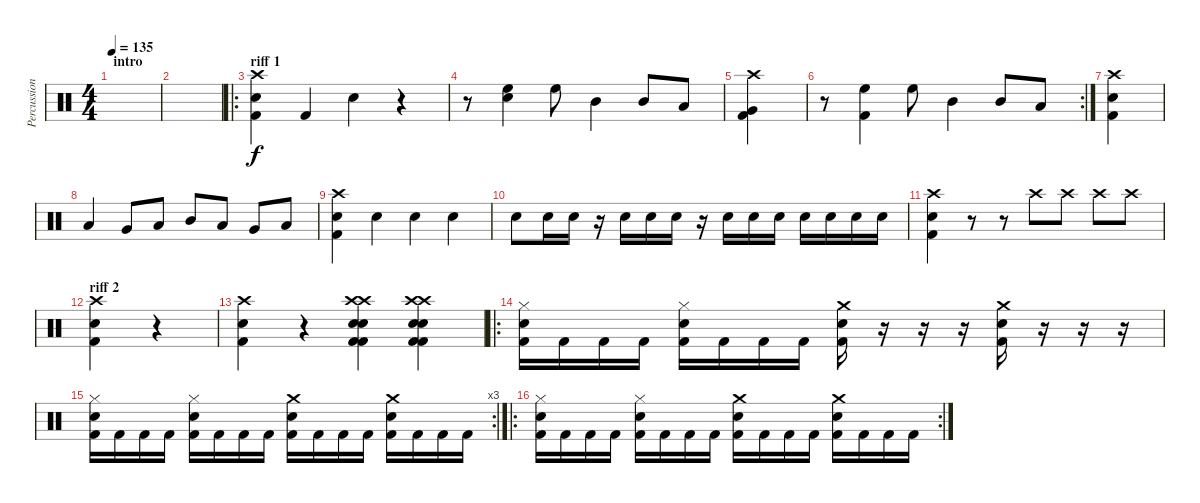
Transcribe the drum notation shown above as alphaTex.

\track ("Percussions" "Percussion") {instrument percussion}
\staff {score}
\articulation defaults
\ts (4 4)
\section ("" "intro")
\tempo 135
\clef neutral
\ks c
|
|
\ro
\section ("" "riff 1")
("Crash high (hit)" "Snare (hit) 2" "Kick (hit) 2").4 "Kick (hit) 2".4 "Snare (hit) 2".4 r.4 |
r.8 ("High Floor Tom (hit)" "Snare (hit) 2").4 "High Floor Tom (hit)".8 "Mid Tom (hit)".4 "Mid Tom (hit)".8 "Low Tom (hit)".8 |
("Crash high (hit)" "Very Low Tom (hit)" "Kick (hit) 2").4 |
\rc 2
r.8 ("High Floor Tom (hit)" "Kick (hit) 2").4 "High Floor Tom (hit)".8 "Mid Tom (hit)".4 "Mid Tom (hit)".8 "Low Tom (hit)".8 |
("Crash high (hit)" "Snare (hit) 2" "Kick (hit) 2").4 |
"Low Floor Tom (hit)".4 "Very Low Tom (hit)".8 "Low Tom (hit)".8 "Mid Tom (hit)".8 "Low Tom (hit)".8 "Very Low Tom (hit)".8 "Low Floor Tom (hit)".8 |
("Crash high (hit)" "Snare (hit) 2" "Kick (hit) 2").4 "Snare (hit) 2".4 "Snare (hit) 2".4 "Snare (hit) 2".4 |
"Snare (hit) 2".8 "Snare (hit) 2".16 "Snare (hit) 2".16 r.16 "Snare (hit) 2".16 "Snare (hit) 2".16 "Snare (hit) 2".16 r.16 "Snare (hit) 2".16 "Snare (hit) 2".16 "Snare (hit) 2".16 "Snare (hit) 2".16 "Snare (hit) 2".16 "Snare (hit) 2".16 "Snare (hit) 2".16 |
("Crash high (hit)" "Snare (hit) 2" "Kick (hit) 2").4 r.8 r.8 "Crash high (hit)".8 "Crash high (hit)".8 "Crash high (hit)".8 "Crash high (hit)".8 |
\section ("" "riff 2")
("Crash high (hit)" "Snare (hit) 2" "Kick (hit) 2").4 r.4 |
("Crash high (hit)" "Snare (hit) 2" "Kick (hit) 2").4 r.4 ("Crash high (hit)" "Crash high (hit)" "Snare (hit) 2" "Snare (hit) 2" "Kick (hit) 2" "Kick (hit) 2").4 ("Crash high (hit)" "Crash high (hit)" "Snare (hit) 2" "Snare (hit) 2" "Kick (hit) 2" "Kick (hit) 2").4 |
\ro
("Hi-Hat (closed)" "Snare (hit) 2" "Kick (hit) 2").16 "Kick (hit) 2".16 "Kick (hit) 2".16 "Kick (hit) 2".16 ("Hi-Hat (closed)" "Snare (hit) 2" "Kick (hit) 2").16 "Kick (hit) 2".16 "Kick (hit) 2".16 "Kick (hit) 2".16 ("Crash medium (hit)" "Snare (hit) 2" "Kick (hit) 2").16 r.16 r.16 r.16 ("Crash medium (hit)" "Snare (hit) 2" "Kick (hit) 2").16 r.16 r.16 r.16 |
\rc 3
("Hi-Hat (closed)" "Snare (hit) 2" "Kick (hit) 2").16 "Kick (hit) 2".16 "Kick (hit) 2".16 "Kick (hit) 2".16 ("Hi-Hat (closed)" "Snare (hit) 2" "Kick (hit) 2").16 "Kick (hit) 2".16 "Kick (hit) 2".16 "Kick (hit) 2".16 ("Crash medium (hit)" "Snare (hit) 2" "Kick (hit) 2").16 "Kick (hit) 2".16 "Kick (hit) 2".16 "Kick (hit) 2".16 ("Crash medium (hit)" "Snare (hit) 2" "Kick (hit) 2").16 "Kick (hit) 2".16 "Kick (hit) 2".16 "Kick (hit) 2".16 |
\ro
\rc 2
("Hi-Hat (closed)" "Snare (hit) 2" "Kick (hit) 2").16 "Kick (hit) 2".16 "Kick (hit) 2".16 "Kick (hit) 2".16 ("Hi-Hat (closed)" "Snare (hit) 2" "Kick (hit) 2").16 "Kick (hit) 2".16 "Kick (hit) 2".16 "Kick (hit) 2".16 ("Crash medium (hit)" "Snare (hit) 2" "Kick (hit) 2").16 "Kick (hit) 2".16 "Kick (hit) 2".16 "Kick (hit) 2".16 ("Crash medium (hit)" "Snare (hit) 2" "Kick (hit) 2").16 "Kick (hit) 2".16 "Kick (hit) 2".16 "Kick (hit) 2".16
